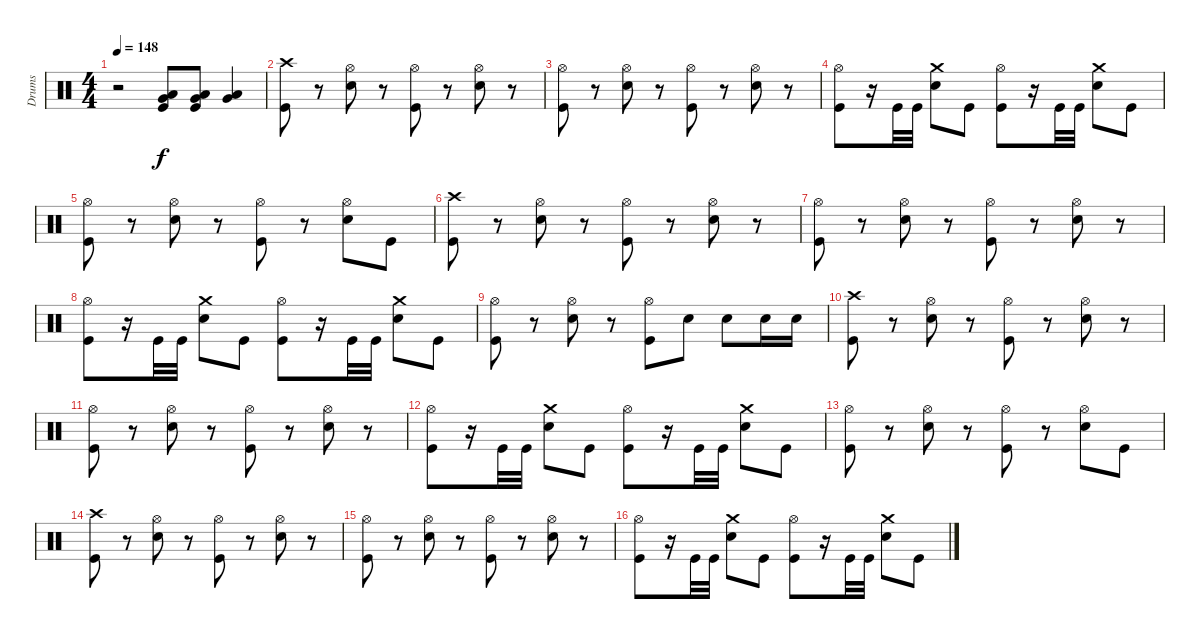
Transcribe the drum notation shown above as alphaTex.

\track ("Drums" "Drums") {instrument percussion}
\staff {score}
\articulation defaults
\ts (4 4)
\tempo 148
\clef neutral
\ks c
r.2{dy f} ("Very Low Tom (hit)" "Low Tom (hit)" "Kick (hit)").8 ("Very Low Tom (hit)" "Low Tom (hit)" "Kick (hit)").8 ("Very Low Tom (hit)" "Low Tom (hit)").4 |
("Crash high (hit)" "Kick (hit)").8 r.8 ("Hi-Hat (open)" "Electric Snare (hit)").8 r.8 ("Hi-Hat (open)" "Kick (hit)").8 r.8 ("Hi-Hat (open)" "Electric Snare (hit)").8 r.8 |
("Hi-Hat (open)" "Kick (hit)").8 r.8 ("Hi-Hat (open)" "Electric Snare (hit)").8 r.8 ("Hi-Hat (open)" "Kick (hit)").8 r.8 ("Hi-Hat (open)" "Electric Snare (hit)").8 r.8 |
("Hi-Hat (open)" "Kick (hit)").8 r.16 "Kick (hit)".32 "Kick (hit)".32 ("Crash medium (hit)" "Electric Snare (hit)").8 "Kick (hit)".8 ("Hi-Hat (open)" "Kick (hit)").8 r.16 "Kick (hit)".32 "Kick (hit)".32 ("Crash medium (hit)" "Electric Snare (hit)").8 "Kick (hit)".8 |
("Hi-Hat (open)" "Kick (hit)").8 r.8 ("Hi-Hat (open)" "Electric Snare (hit)").8 r.8 ("Hi-Hat (open)" "Kick (hit)").8 r.8 ("Hi-Hat (open)" "Electric Snare (hit)").8 "Kick (hit)".8 |
("Crash high (hit)" "Kick (hit)").8 r.8 ("Hi-Hat (open)" "Electric Snare (hit)").8 r.8 ("Hi-Hat (open)" "Kick (hit)").8 r.8 ("Hi-Hat (open)" "Electric Snare (hit)").8 r.8 |
("Hi-Hat (open)" "Kick (hit)").8 r.8 ("Hi-Hat (open)" "Electric Snare (hit)").8 r.8 ("Hi-Hat (open)" "Kick (hit)").8 r.8 ("Hi-Hat (open)" "Electric Snare (hit)").8 r.8 |
("Hi-Hat (open)" "Kick (hit)").8 r.16 "Kick (hit)".32 "Kick (hit)".32 ("Crash medium (hit)" "Electric Snare (hit)").8 "Kick (hit)".8 ("Hi-Hat (open)" "Kick (hit)").8 r.16 "Kick (hit)".32 "Kick (hit)".32 ("Crash medium (hit)" "Electric Snare (hit)").8 "Kick (hit)".8 |
("Hi-Hat (open)" "Kick (hit)").8 r.8 ("Hi-Hat (open)" "Electric Snare (hit)").8 r.8 ("Hi-Hat (open)" "Kick (hit)").8 "Electric Snare (hit)".8 "Electric Snare (hit)".8 "Electric Snare (hit)".16 "Electric Snare (hit)".16 |
("Crash high (hit)" "Kick (hit)").8 r.8 ("Hi-Hat (open)" "Electric Snare (hit)").8 r.8 ("Hi-Hat (open)" "Kick (hit)").8 r.8 ("Hi-Hat (open)" "Electric Snare (hit)").8 r.8 |
("Hi-Hat (open)" "Kick (hit)").8 r.8 ("Hi-Hat (open)" "Electric Snare (hit)").8 r.8 ("Hi-Hat (open)" "Kick (hit)").8 r.8 ("Hi-Hat (open)" "Electric Snare (hit)").8 r.8 |
("Hi-Hat (open)" "Kick (hit)").8 r.16 "Kick (hit)".32 "Kick (hit)".32 ("Crash medium (hit)" "Electric Snare (hit)").8 "Kick (hit)".8 ("Hi-Hat (open)" "Kick (hit)").8 r.16 "Kick (hit)".32 "Kick (hit)".32 ("Crash medium (hit)" "Electric Snare (hit)").8 "Kick (hit)".8 |
("Hi-Hat (open)" "Kick (hit)").8 r.8 ("Hi-Hat (open)" "Electric Snare (hit)").8 r.8 ("Hi-Hat (open)" "Kick (hit)").8 r.8 ("Hi-Hat (open)" "Electric Snare (hit)").8 "Kick (hit)".8 |
("Crash high (hit)" "Kick (hit)").8 r.8 ("Hi-Hat (open)" "Electric Snare (hit)").8 r.8 ("Hi-Hat (open)" "Kick (hit)").8 r.8 ("Hi-Hat (open)" "Electric Snare (hit)").8 r.8 |
("Hi-Hat (open)" "Kick (hit)").8 r.8 ("Hi-Hat (open)" "Electric Snare (hit)").8 r.8 ("Hi-Hat (open)" "Kick (hit)").8 r.8 ("Hi-Hat (open)" "Electric Snare (hit)").8 r.8 |
("Hi-Hat (open)" "Kick (hit)").8 r.16 "Kick (hit)".32 "Kick (hit)".32 ("Crash medium (hit)" "Electric Snare (hit)").8 "Kick (hit)".8 ("Hi-Hat (open)" "Kick (hit)").8 r.16 "Kick (hit)".32 "Kick (hit)".32 ("Crash medium (hit)" "Electric Snare (hit)").8 "Kick (hit)".8
